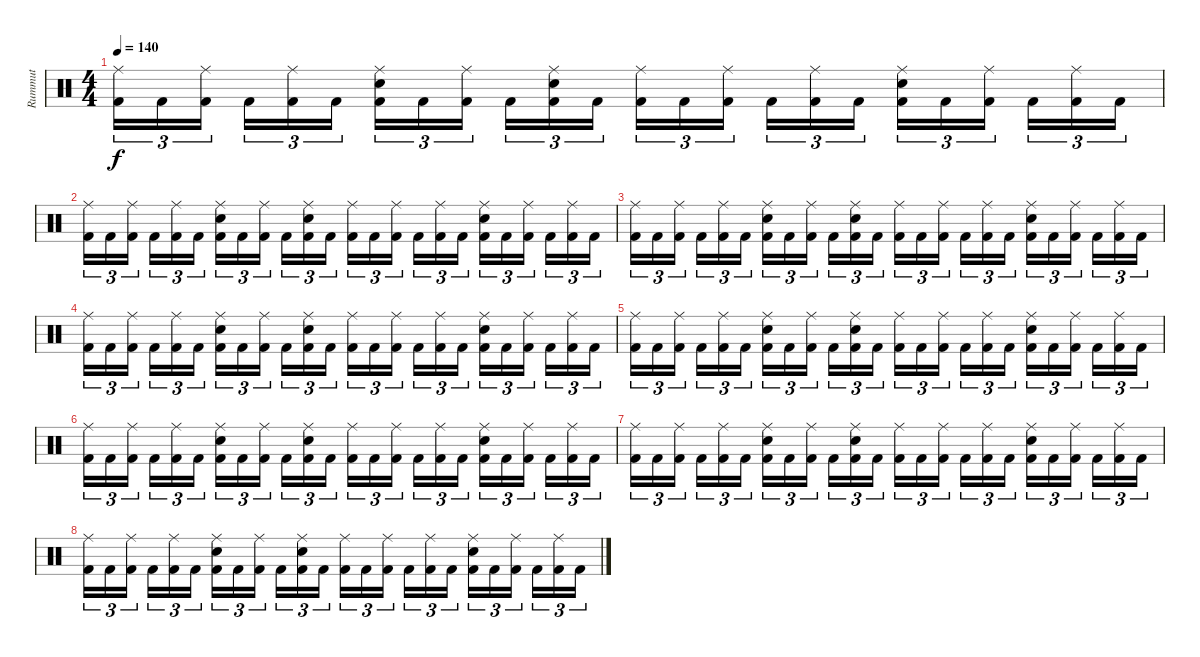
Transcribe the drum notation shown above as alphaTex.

\track ("Rummut" "Rummut") {instrument percussion}
\staff {score}
\articulation defaults
\ts (4 4)
\tempo 140
\clef neutral
\ks c
("Ride (middle)" "Kick (hit) 2").16{tu (3 2) dy f} "Kick (hit) 2".16{tu (3 2)} ("Ride (middle)" "Kick (hit) 2").16{tu (3 2)} "Kick (hit) 2".16{tu (3 2)} ("Ride (middle)" "Kick (hit) 2").16{tu (3 2)} "Kick (hit) 2".16{tu (3 2)} ("Ride (middle)" "Snare (hit) 2" "Kick (hit) 2").16{tu (3 2)} "Kick (hit) 2".16{tu (3 2)} ("Ride (middle)" "Kick (hit) 2").16{tu (3 2)} "Kick (hit) 2".16{tu (3 2)} ("Ride (middle)" "Snare (hit) 2" "Kick (hit) 2").16{tu (3 2)} "Kick (hit) 2".16{tu (3 2)} ("Ride (middle)" "Kick (hit) 2").16{tu (3 2)} "Kick (hit) 2".16{tu (3 2)} ("Ride (middle)" "Kick (hit) 2").16{tu (3 2)} "Kick (hit) 2".16{tu (3 2)} ("Ride (middle)" "Kick (hit) 2").16{tu (3 2)} "Kick (hit) 2".16{tu (3 2)} ("Ride (middle)" "Snare (hit) 2" "Kick (hit) 2").16{tu (3 2)} "Kick (hit) 2".16{tu (3 2)} ("Ride (middle)" "Kick (hit) 2").16{tu (3 2)} "Kick (hit) 2".16{tu (3 2)} ("Ride (middle)" "Kick (hit) 2").16{tu (3 2)} "Kick (hit) 2".16{tu (3 2)} |
("Ride (middle)" "Kick (hit) 2").16{tu (3 2)} "Kick (hit) 2".16{tu (3 2)} ("Ride (middle)" "Kick (hit) 2").16{tu (3 2)} "Kick (hit) 2".16{tu (3 2)} ("Ride (middle)" "Kick (hit) 2").16{tu (3 2)} "Kick (hit) 2".16{tu (3 2)} ("Ride (middle)" "Snare (hit) 2" "Kick (hit) 2").16{tu (3 2)} "Kick (hit) 2".16{tu (3 2)} ("Ride (middle)" "Kick (hit) 2").16{tu (3 2)} "Kick (hit) 2".16{tu (3 2)} ("Ride (middle)" "Snare (hit) 2" "Kick (hit) 2").16{tu (3 2)} "Kick (hit) 2".16{tu (3 2)} ("Ride (middle)" "Kick (hit) 2").16{tu (3 2)} "Kick (hit) 2".16{tu (3 2)} ("Ride (middle)" "Kick (hit) 2").16{tu (3 2)} "Kick (hit) 2".16{tu (3 2)} ("Ride (middle)" "Kick (hit) 2").16{tu (3 2)} "Kick (hit) 2".16{tu (3 2)} ("Ride (middle)" "Snare (hit) 2" "Kick (hit) 2").16{tu (3 2)} "Kick (hit) 2".16{tu (3 2)} ("Ride (middle)" "Kick (hit) 2").16{tu (3 2)} "Kick (hit) 2".16{tu (3 2)} ("Ride (middle)" "Kick (hit) 2").16{tu (3 2)} "Kick (hit) 2".16{tu (3 2)} |
("Ride (middle)" "Kick (hit) 2").16{tu (3 2)} "Kick (hit) 2".16{tu (3 2)} ("Ride (middle)" "Kick (hit) 2").16{tu (3 2)} "Kick (hit) 2".16{tu (3 2)} ("Ride (middle)" "Kick (hit) 2").16{tu (3 2)} "Kick (hit) 2".16{tu (3 2)} ("Ride (middle)" "Snare (hit) 2" "Kick (hit) 2").16{tu (3 2)} "Kick (hit) 2".16{tu (3 2)} ("Ride (middle)" "Kick (hit) 2").16{tu (3 2)} "Kick (hit) 2".16{tu (3 2)} ("Ride (middle)" "Snare (hit) 2" "Kick (hit) 2").16{tu (3 2)} "Kick (hit) 2".16{tu (3 2)} ("Ride (middle)" "Kick (hit) 2").16{tu (3 2)} "Kick (hit) 2".16{tu (3 2)} ("Ride (middle)" "Kick (hit) 2").16{tu (3 2)} "Kick (hit) 2".16{tu (3 2)} ("Ride (middle)" "Kick (hit) 2").16{tu (3 2)} "Kick (hit) 2".16{tu (3 2)} ("Ride (middle)" "Snare (hit) 2" "Kick (hit) 2").16{tu (3 2)} "Kick (hit) 2".16{tu (3 2)} ("Ride (middle)" "Kick (hit) 2").16{tu (3 2)} "Kick (hit) 2".16{tu (3 2)} ("Ride (middle)" "Kick (hit) 2").16{tu (3 2)} "Kick (hit) 2".16{tu (3 2)} |
("Ride (middle)" "Kick (hit) 2").16{tu (3 2)} "Kick (hit) 2".16{tu (3 2)} ("Ride (middle)" "Kick (hit) 2").16{tu (3 2)} "Kick (hit) 2".16{tu (3 2)} ("Ride (middle)" "Kick (hit) 2").16{tu (3 2)} "Kick (hit) 2".16{tu (3 2)} ("Ride (middle)" "Snare (hit) 2" "Kick (hit) 2").16{tu (3 2)} "Kick (hit) 2".16{tu (3 2)} ("Ride (middle)" "Kick (hit) 2").16{tu (3 2)} "Kick (hit) 2".16{tu (3 2)} ("Ride (middle)" "Snare (hit) 2" "Kick (hit) 2").16{tu (3 2)} "Kick (hit) 2".16{tu (3 2)} ("Ride (middle)" "Kick (hit) 2").16{tu (3 2)} "Kick (hit) 2".16{tu (3 2)} ("Ride (middle)" "Kick (hit) 2").16{tu (3 2)} "Kick (hit) 2".16{tu (3 2)} ("Ride (middle)" "Kick (hit) 2").16{tu (3 2)} "Kick (hit) 2".16{tu (3 2)} ("Ride (middle)" "Snare (hit) 2" "Kick (hit) 2").16{tu (3 2)} "Kick (hit) 2".16{tu (3 2)} ("Ride (middle)" "Kick (hit) 2").16{tu (3 2)} "Kick (hit) 2".16{tu (3 2)} ("Ride (middle)" "Kick (hit) 2").16{tu (3 2)} "Kick (hit) 2".16{tu (3 2)} |
("Ride (middle)" "Kick (hit) 2").16{tu (3 2)} "Kick (hit) 2".16{tu (3 2)} ("Ride (middle)" "Kick (hit) 2").16{tu (3 2)} "Kick (hit) 2".16{tu (3 2)} ("Ride (middle)" "Kick (hit) 2").16{tu (3 2)} "Kick (hit) 2".16{tu (3 2)} ("Ride (middle)" "Snare (hit) 2" "Kick (hit) 2").16{tu (3 2)} "Kick (hit) 2".16{tu (3 2)} ("Ride (middle)" "Kick (hit) 2").16{tu (3 2)} "Kick (hit) 2".16{tu (3 2)} ("Ride (middle)" "Snare (hit) 2" "Kick (hit) 2").16{tu (3 2)} "Kick (hit) 2".16{tu (3 2)} ("Ride (middle)" "Kick (hit) 2").16{tu (3 2)} "Kick (hit) 2".16{tu (3 2)} ("Ride (middle)" "Kick (hit) 2").16{tu (3 2)} "Kick (hit) 2".16{tu (3 2)} ("Ride (middle)" "Kick (hit) 2").16{tu (3 2)} "Kick (hit) 2".16{tu (3 2)} ("Ride (middle)" "Snare (hit) 2" "Kick (hit) 2").16{tu (3 2)} "Kick (hit) 2".16{tu (3 2)} ("Ride (middle)" "Kick (hit) 2").16{tu (3 2)} "Kick (hit) 2".16{tu (3 2)} ("Ride (middle)" "Kick (hit) 2").16{tu (3 2)} "Kick (hit) 2".16{tu (3 2)} |
("Ride (middle)" "Kick (hit) 2").16{tu (3 2)} "Kick (hit) 2".16{tu (3 2)} ("Ride (middle)" "Kick (hit) 2").16{tu (3 2)} "Kick (hit) 2".16{tu (3 2)} ("Ride (middle)" "Kick (hit) 2").16{tu (3 2)} "Kick (hit) 2".16{tu (3 2)} ("Ride (middle)" "Snare (hit) 2" "Kick (hit) 2").16{tu (3 2)} "Kick (hit) 2".16{tu (3 2)} ("Ride (middle)" "Kick (hit) 2").16{tu (3 2)} "Kick (hit) 2".16{tu (3 2)} ("Ride (middle)" "Snare (hit) 2" "Kick (hit) 2").16{tu (3 2)} "Kick (hit) 2".16{tu (3 2)} ("Ride (middle)" "Kick (hit) 2").16{tu (3 2)} "Kick (hit) 2".16{tu (3 2)} ("Ride (middle)" "Kick (hit) 2").16{tu (3 2)} "Kick (hit) 2".16{tu (3 2)} ("Ride (middle)" "Kick (hit) 2").16{tu (3 2)} "Kick (hit) 2".16{tu (3 2)} ("Ride (middle)" "Snare (hit) 2" "Kick (hit) 2").16{tu (3 2)} "Kick (hit) 2".16{tu (3 2)} ("Ride (middle)" "Kick (hit) 2").16{tu (3 2)} "Kick (hit) 2".16{tu (3 2)} ("Ride (middle)" "Kick (hit) 2").16{tu (3 2)} "Kick (hit) 2".16{tu (3 2)} |
("Ride (middle)" "Kick (hit) 2").16{tu (3 2)} "Kick (hit) 2".16{tu (3 2)} ("Ride (middle)" "Kick (hit) 2").16{tu (3 2)} "Kick (hit) 2".16{tu (3 2)} ("Ride (middle)" "Kick (hit) 2").16{tu (3 2)} "Kick (hit) 2".16{tu (3 2)} ("Ride (middle)" "Snare (hit) 2" "Kick (hit) 2").16{tu (3 2)} "Kick (hit) 2".16{tu (3 2)} ("Ride (middle)" "Kick (hit) 2").16{tu (3 2)} "Kick (hit) 2".16{tu (3 2)} ("Ride (middle)" "Snare (hit) 2" "Kick (hit) 2").16{tu (3 2)} "Kick (hit) 2".16{tu (3 2)} ("Ride (middle)" "Kick (hit) 2").16{tu (3 2)} "Kick (hit) 2".16{tu (3 2)} ("Ride (middle)" "Kick (hit) 2").16{tu (3 2)} "Kick (hit) 2".16{tu (3 2)} ("Ride (middle)" "Kick (hit) 2").16{tu (3 2)} "Kick (hit) 2".16{tu (3 2)} ("Ride (middle)" "Snare (hit) 2" "Kick (hit) 2").16{tu (3 2)} "Kick (hit) 2".16{tu (3 2)} ("Ride (middle)" "Kick (hit) 2").16{tu (3 2)} "Kick (hit) 2".16{tu (3 2)} ("Ride (middle)" "Kick (hit) 2").16{tu (3 2)} "Kick (hit) 2".16{tu (3 2)} |
("Ride (middle)" "Kick (hit) 2").16{tu (3 2)} "Kick (hit) 2".16{tu (3 2)} ("Ride (middle)" "Kick (hit) 2").16{tu (3 2)} "Kick (hit) 2".16{tu (3 2)} ("Ride (middle)" "Kick (hit) 2").16{tu (3 2)} "Kick (hit) 2".16{tu (3 2)} ("Ride (middle)" "Snare (hit) 2" "Kick (hit) 2").16{tu (3 2)} "Kick (hit) 2".16{tu (3 2)} ("Ride (middle)" "Kick (hit) 2").16{tu (3 2)} "Kick (hit) 2".16{tu (3 2)} ("Ride (middle)" "Snare (hit) 2" "Kick (hit) 2").16{tu (3 2)} "Kick (hit) 2".16{tu (3 2)} ("Ride (middle)" "Kick (hit) 2").16{tu (3 2)} "Kick (hit) 2".16{tu (3 2)} ("Ride (middle)" "Kick (hit) 2").16{tu (3 2)} "Kick (hit) 2".16{tu (3 2)} ("Ride (middle)" "Kick (hit) 2").16{tu (3 2)} "Kick (hit) 2".16{tu (3 2)} ("Ride (middle)" "Snare (hit) 2" "Kick (hit) 2").16{tu (3 2)} "Kick (hit) 2".16{tu (3 2)} ("Ride (middle)" "Kick (hit) 2").16{tu (3 2)} "Kick (hit) 2".16{tu (3 2)} ("Ride (middle)" "Kick (hit) 2").16{tu (3 2)} "Kick (hit) 2".16{tu (3 2)}
